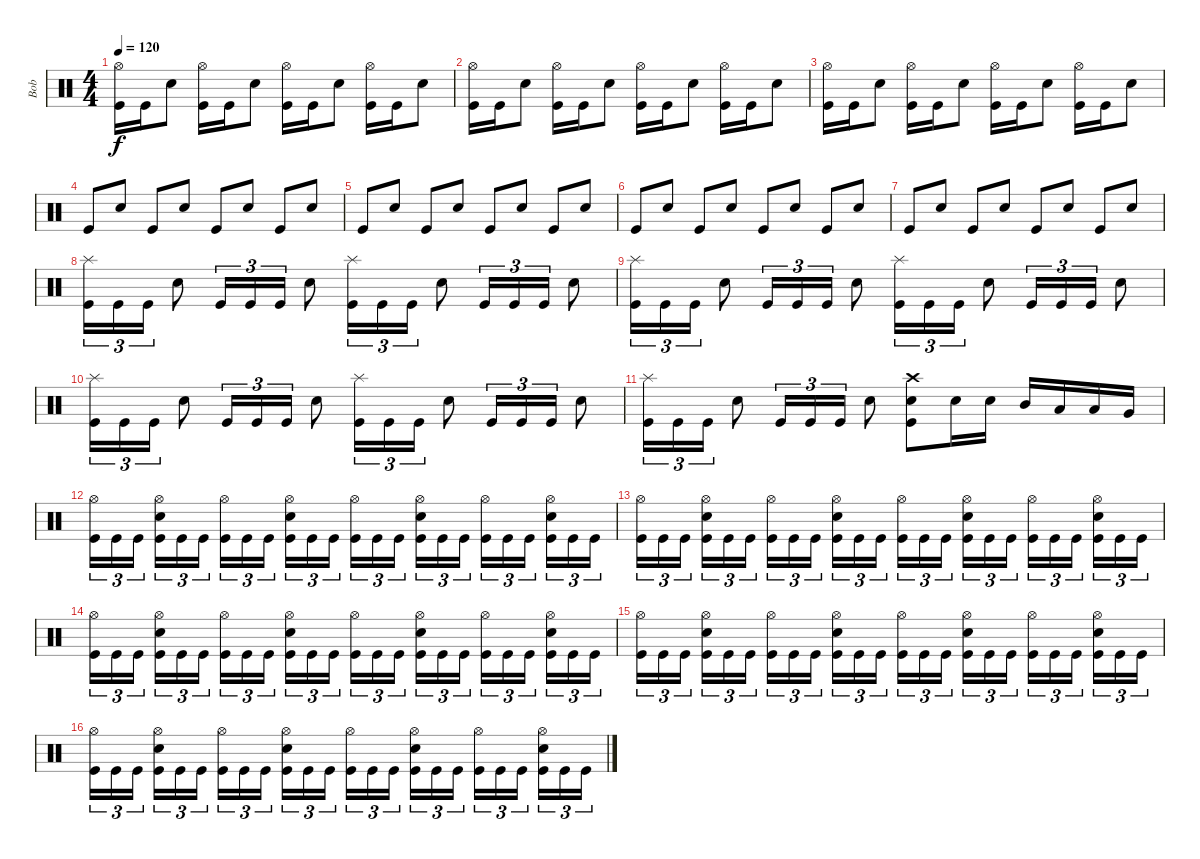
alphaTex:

\track ("Bob" "Bob") {instrument percussion}
\staff {score}
\articulation defaults
\ts (4 4)
\tempo 120
\clef neutral
\ks c
("Hi-Hat (open)" "Kick (hit)").16{dy f} "Kick (hit)".16 "Snare (hit) 2".8 ("Hi-Hat (open)" "Kick (hit)").16 "Kick (hit)".16 "Snare (hit) 2".8 ("Hi-Hat (open)" "Kick (hit)").16 "Kick (hit)".16 "Snare (hit) 2".8 ("Hi-Hat (open)" "Kick (hit)").16 "Kick (hit)".16 "Snare (hit) 2".8 |
("Hi-Hat (open)" "Kick (hit)").16 "Kick (hit)".16 "Snare (hit) 2".8 ("Hi-Hat (open)" "Kick (hit)").16 "Kick (hit)".16 "Snare (hit) 2".8 ("Hi-Hat (open)" "Kick (hit)").16 "Kick (hit)".16 "Snare (hit) 2".8 ("Hi-Hat (open)" "Kick (hit)").16 "Kick (hit)".16 "Snare (hit) 2".8 |
("Hi-Hat (open)" "Kick (hit)").16 "Kick (hit)".16 "Snare (hit) 2".8 ("Hi-Hat (open)" "Kick (hit)").16 "Kick (hit)".16 "Snare (hit) 2".8 ("Hi-Hat (open)" "Kick (hit)").16 "Kick (hit)".16 "Snare (hit) 2".8 ("Hi-Hat (open)" "Kick (hit)").16 "Kick (hit)".16 "Snare (hit) 2".8 |
"Kick (hit)".8 "Snare (hit) 2".8 "Kick (hit)".8 "Snare (hit) 2".8 "Kick (hit)".8 "Snare (hit) 2".8 "Kick (hit)".8 "Snare (hit) 2".8 |
"Kick (hit)".8 "Snare (hit) 2".8 "Kick (hit)".8 "Snare (hit) 2".8 "Kick (hit)".8 "Snare (hit) 2".8 "Kick (hit)".8 "Snare (hit) 2".8 |
"Kick (hit)".8 "Snare (hit) 2".8 "Kick (hit)".8 "Snare (hit) 2".8 "Kick (hit)".8 "Snare (hit) 2".8 "Kick (hit)".8 "Snare (hit) 2".8 |
"Kick (hit)".8 "Snare (hit) 2".8 "Kick (hit)".8 "Snare (hit) 2".8 "Kick (hit)".8 "Snare (hit) 2".8 "Kick (hit)".8 "Snare (hit) 2".8 |
("Splash (hit)" "Kick (hit)").16{tu (3 2)} "Kick (hit)".16{tu (3 2)} "Kick (hit)".16{tu (3 2)} "Snare (hit) 2".8 "Kick (hit)".16{tu (3 2)} "Kick (hit)".16{tu (3 2)} "Kick (hit)".16{tu (3 2)} "Snare (hit) 2".8 ("Splash (hit)" "Kick (hit)").16{tu (3 2)} "Kick (hit)".16{tu (3 2)} "Kick (hit)".16{tu (3 2)} "Snare (hit) 2".8 "Kick (hit)".16{tu (3 2)} "Kick (hit)".16{tu (3 2)} "Kick (hit)".16{tu (3 2)} "Snare (hit) 2".8 |
("Splash (hit)" "Kick (hit)").16{tu (3 2)} "Kick (hit)".16{tu (3 2)} "Kick (hit)".16{tu (3 2)} "Snare (hit) 2".8 "Kick (hit)".16{tu (3 2)} "Kick (hit)".16{tu (3 2)} "Kick (hit)".16{tu (3 2)} "Snare (hit) 2".8 ("Splash (hit)" "Kick (hit)").16{tu (3 2)} "Kick (hit)".16{tu (3 2)} "Kick (hit)".16{tu (3 2)} "Snare (hit) 2".8 "Kick (hit)".16{tu (3 2)} "Kick (hit)".16{tu (3 2)} "Kick (hit)".16{tu (3 2)} "Snare (hit) 2".8 |
("Splash (hit)" "Kick (hit)").16{tu (3 2)} "Kick (hit)".16{tu (3 2)} "Kick (hit)".16{tu (3 2)} "Snare (hit) 2".8 "Kick (hit)".16{tu (3 2)} "Kick (hit)".16{tu (3 2)} "Kick (hit)".16{tu (3 2)} "Snare (hit) 2".8 ("Splash (hit)" "Kick (hit)").16{tu (3 2)} "Kick (hit)".16{tu (3 2)} "Kick (hit)".16{tu (3 2)} "Snare (hit) 2".8 "Kick (hit)".16{tu (3 2)} "Kick (hit)".16{tu (3 2)} "Kick (hit)".16{tu (3 2)} "Snare (hit) 2".8 |
("Splash (hit)" "Kick (hit)").16{tu (3 2)} "Kick (hit)".16{tu (3 2)} "Kick (hit)".16{tu (3 2)} "Snare (hit) 2".8 "Kick (hit)".16{tu (3 2)} "Kick (hit)".16{tu (3 2)} "Kick (hit)".16{tu (3 2)} "Snare (hit) 2".8 ("Crash high (hit)" "Snare (hit) 2" "Kick (hit)").8 "Snare (hit) 2".16 "Snare (hit) 2".16 "Mid Tom (hit)".16 "Low Tom (hit)".16 "Low Tom (hit)".16 "Very Low Tom (hit)".16 |
("Hi-Hat (open)" "Kick (hit)").16{tu (3 2)} "Kick (hit)".16{tu (3 2)} "Kick (hit)".16{tu (3 2)} ("Hi-Hat (open)" "Snare (hit) 2" "Kick (hit)").16{tu (3 2)} "Kick (hit)".16{tu (3 2)} "Kick (hit)".16{tu (3 2)} ("Hi-Hat (open)" "Kick (hit)").16{tu (3 2)} "Kick (hit)".16{tu (3 2)} "Kick (hit)".16{tu (3 2)} ("Hi-Hat (open)" "Snare (hit) 2" "Kick (hit)").16{tu (3 2)} "Kick (hit)".16{tu (3 2)} "Kick (hit)".16{tu (3 2)} ("Hi-Hat (open)" "Kick (hit)").16{tu (3 2)} "Kick (hit)".16{tu (3 2)} "Kick (hit)".16{tu (3 2)} ("Hi-Hat (open)" "Snare (hit) 2" "Kick (hit)").16{tu (3 2)} "Kick (hit)".16{tu (3 2)} "Kick (hit)".16{tu (3 2)} ("Hi-Hat (open)" "Kick (hit)").16{tu (3 2)} "Kick (hit)".16{tu (3 2)} "Kick (hit)".16{tu (3 2)} ("Hi-Hat (open)" "Snare (hit) 2" "Kick (hit)").16{tu (3 2)} "Kick (hit)".16{tu (3 2)} "Kick (hit)".16{tu (3 2)} |
("Hi-Hat (open)" "Kick (hit)").16{tu (3 2)} "Kick (hit)".16{tu (3 2)} "Kick (hit)".16{tu (3 2)} ("Hi-Hat (open)" "Snare (hit) 2" "Kick (hit)").16{tu (3 2)} "Kick (hit)".16{tu (3 2)} "Kick (hit)".16{tu (3 2)} ("Hi-Hat (open)" "Kick (hit)").16{tu (3 2)} "Kick (hit)".16{tu (3 2)} "Kick (hit)".16{tu (3 2)} ("Hi-Hat (open)" "Snare (hit) 2" "Kick (hit)").16{tu (3 2)} "Kick (hit)".16{tu (3 2)} "Kick (hit)".16{tu (3 2)} ("Hi-Hat (open)" "Kick (hit)").16{tu (3 2)} "Kick (hit)".16{tu (3 2)} "Kick (hit)".16{tu (3 2)} ("Hi-Hat (open)" "Snare (hit) 2" "Kick (hit)").16{tu (3 2)} "Kick (hit)".16{tu (3 2)} "Kick (hit)".16{tu (3 2)} ("Hi-Hat (open)" "Kick (hit)").16{tu (3 2)} "Kick (hit)".16{tu (3 2)} "Kick (hit)".16{tu (3 2)} ("Hi-Hat (open)" "Snare (hit) 2" "Kick (hit)").16{tu (3 2)} "Kick (hit)".16{tu (3 2)} "Kick (hit)".16{tu (3 2)} |
("Hi-Hat (open)" "Kick (hit)").16{tu (3 2)} "Kick (hit)".16{tu (3 2)} "Kick (hit)".16{tu (3 2)} ("Hi-Hat (open)" "Snare (hit) 2" "Kick (hit)").16{tu (3 2)} "Kick (hit)".16{tu (3 2)} "Kick (hit)".16{tu (3 2)} ("Hi-Hat (open)" "Kick (hit)").16{tu (3 2)} "Kick (hit)".16{tu (3 2)} "Kick (hit)".16{tu (3 2)} ("Hi-Hat (open)" "Snare (hit) 2" "Kick (hit)").16{tu (3 2)} "Kick (hit)".16{tu (3 2)} "Kick (hit)".16{tu (3 2)} ("Hi-Hat (open)" "Kick (hit)").16{tu (3 2)} "Kick (hit)".16{tu (3 2)} "Kick (hit)".16{tu (3 2)} ("Hi-Hat (open)" "Snare (hit) 2" "Kick (hit)").16{tu (3 2)} "Kick (hit)".16{tu (3 2)} "Kick (hit)".16{tu (3 2)} ("Hi-Hat (open)" "Kick (hit)").16{tu (3 2)} "Kick (hit)".16{tu (3 2)} "Kick (hit)".16{tu (3 2)} ("Hi-Hat (open)" "Snare (hit) 2" "Kick (hit)").16{tu (3 2)} "Kick (hit)".16{tu (3 2)} "Kick (hit)".16{tu (3 2)} |
("Hi-Hat (open)" "Kick (hit)").16{tu (3 2)} "Kick (hit)".16{tu (3 2)} "Kick (hit)".16{tu (3 2)} ("Hi-Hat (open)" "Snare (hit) 2" "Kick (hit)").16{tu (3 2)} "Kick (hit)".16{tu (3 2)} "Kick (hit)".16{tu (3 2)} ("Hi-Hat (open)" "Kick (hit)").16{tu (3 2)} "Kick (hit)".16{tu (3 2)} "Kick (hit)".16{tu (3 2)} ("Hi-Hat (open)" "Snare (hit) 2" "Kick (hit)").16{tu (3 2)} "Kick (hit)".16{tu (3 2)} "Kick (hit)".16{tu (3 2)} ("Hi-Hat (open)" "Kick (hit)").16{tu (3 2)} "Kick (hit)".16{tu (3 2)} "Kick (hit)".16{tu (3 2)} ("Hi-Hat (open)" "Snare (hit) 2" "Kick (hit)").16{tu (3 2)} "Kick (hit)".16{tu (3 2)} "Kick (hit)".16{tu (3 2)} ("Hi-Hat (open)" "Kick (hit)").16{tu (3 2)} "Kick (hit)".16{tu (3 2)} "Kick (hit)".16{tu (3 2)} ("Hi-Hat (open)" "Snare (hit) 2" "Kick (hit)").16{tu (3 2)} "Kick (hit)".16{tu (3 2)} "Kick (hit)".16{tu (3 2)} |
("Hi-Hat (open)" "Kick (hit)").16{tu (3 2)} "Kick (hit)".16{tu (3 2)} "Kick (hit)".16{tu (3 2)} ("Hi-Hat (open)" "Snare (hit) 2" "Kick (hit)").16{tu (3 2)} "Kick (hit)".16{tu (3 2)} "Kick (hit)".16{tu (3 2)} ("Hi-Hat (open)" "Kick (hit)").16{tu (3 2)} "Kick (hit)".16{tu (3 2)} "Kick (hit)".16{tu (3 2)} ("Hi-Hat (open)" "Snare (hit) 2" "Kick (hit)").16{tu (3 2)} "Kick (hit)".16{tu (3 2)} "Kick (hit)".16{tu (3 2)} ("Hi-Hat (open)" "Kick (hit)").16{tu (3 2)} "Kick (hit)".16{tu (3 2)} "Kick (hit)".16{tu (3 2)} ("Hi-Hat (open)" "Snare (hit) 2" "Kick (hit)").16{tu (3 2)} "Kick (hit)".16{tu (3 2)} "Kick (hit)".16{tu (3 2)} ("Hi-Hat (open)" "Kick (hit)").16{tu (3 2)} "Kick (hit)".16{tu (3 2)} "Kick (hit)".16{tu (3 2)} ("Hi-Hat (open)" "Snare (hit) 2" "Kick (hit)").16{tu (3 2)} "Kick (hit)".16{tu (3 2)} "Kick (hit)".16{tu (3 2)}
